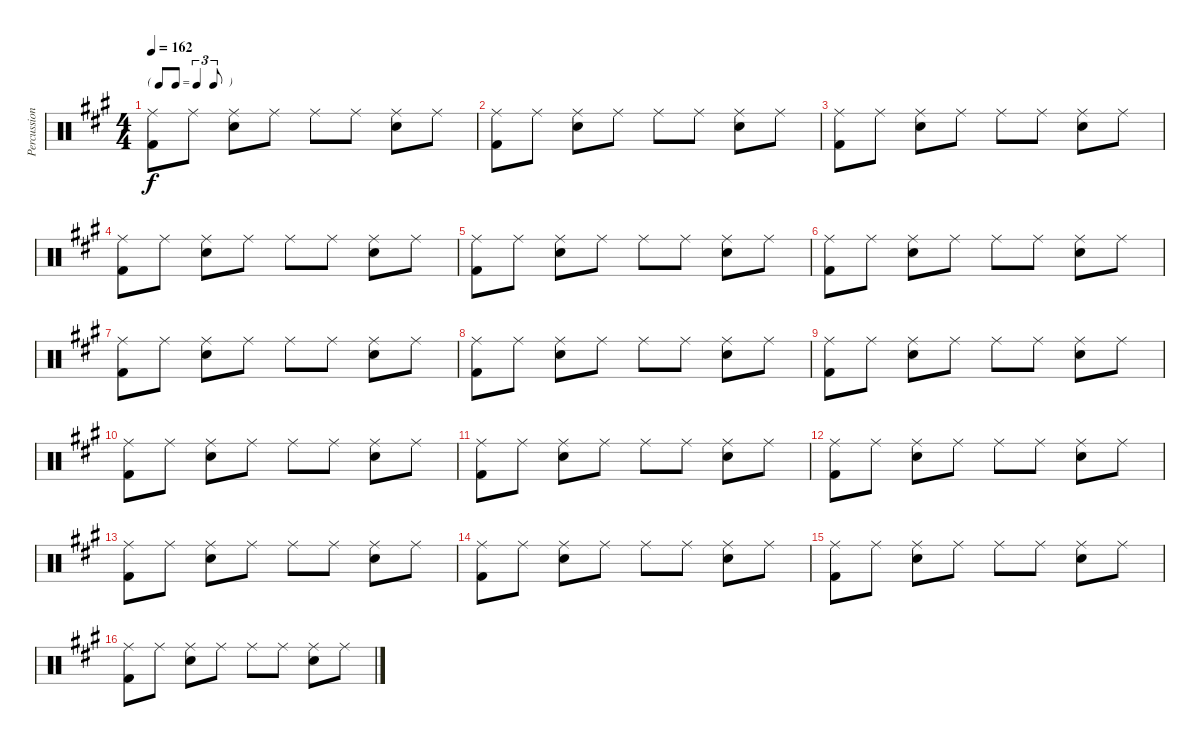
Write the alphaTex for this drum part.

\track ("Percussion" "Percussion") {instrument percussion}
\staff {score}
\articulation defaults
\ts (4 4)
\tf triplet8th
\tempo 162
\clef neutral
\ks a
("Ride (middle)" "Kick (hit) 2").8{dy f} "Ride (middle)".8 ("Ride (middle)" "Snare (hit) 2").8 "Ride (middle)".8 "Ride (middle)".8 "Ride (middle)".8 ("Ride (middle)" "Snare (hit) 2").8 "Ride (middle)".8 |
("Ride (middle)" "Kick (hit) 2").8 "Ride (middle)".8 ("Ride (middle)" "Snare (hit) 2").8 "Ride (middle)".8 "Ride (middle)".8 "Ride (middle)".8 ("Ride (middle)" "Snare (hit) 2").8 "Ride (middle)".8 |
("Ride (middle)" "Kick (hit) 2").8 "Ride (middle)".8 ("Ride (middle)" "Snare (hit) 2").8 "Ride (middle)".8 "Ride (middle)".8 "Ride (middle)".8 ("Ride (middle)" "Snare (hit) 2").8 "Ride (middle)".8 |
("Ride (middle)" "Kick (hit) 2").8 "Ride (middle)".8 ("Ride (middle)" "Snare (hit) 2").8 "Ride (middle)".8 "Ride (middle)".8 "Ride (middle)".8 ("Ride (middle)" "Snare (hit) 2").8 "Ride (middle)".8 |
("Ride (middle)" "Kick (hit) 2").8 "Ride (middle)".8 ("Ride (middle)" "Snare (hit) 2").8 "Ride (middle)".8 "Ride (middle)".8 "Ride (middle)".8 ("Ride (middle)" "Snare (hit) 2").8 "Ride (middle)".8 |
("Ride (middle)" "Kick (hit) 2").8 "Ride (middle)".8 ("Ride (middle)" "Snare (hit) 2").8 "Ride (middle)".8 "Ride (middle)".8 "Ride (middle)".8 ("Ride (middle)" "Snare (hit) 2").8 "Ride (middle)".8 |
("Ride (middle)" "Kick (hit) 2").8 "Ride (middle)".8 ("Ride (middle)" "Snare (hit) 2").8 "Ride (middle)".8 "Ride (middle)".8 "Ride (middle)".8 ("Ride (middle)" "Snare (hit) 2").8 "Ride (middle)".8 |
("Ride (middle)" "Kick (hit) 2").8 "Ride (middle)".8 ("Ride (middle)" "Snare (hit) 2").8 "Ride (middle)".8 "Ride (middle)".8 "Ride (middle)".8 ("Ride (middle)" "Snare (hit) 2").8 "Ride (middle)".8 |
("Ride (middle)" "Kick (hit) 2").8 "Ride (middle)".8 ("Ride (middle)" "Snare (hit) 2").8 "Ride (middle)".8 "Ride (middle)".8 "Ride (middle)".8 ("Ride (middle)" "Snare (hit) 2").8 "Ride (middle)".8 |
("Ride (middle)" "Kick (hit) 2").8 "Ride (middle)".8 ("Ride (middle)" "Snare (hit) 2").8 "Ride (middle)".8 "Ride (middle)".8 "Ride (middle)".8 ("Ride (middle)" "Snare (hit) 2").8 "Ride (middle)".8 |
("Ride (middle)" "Kick (hit) 2").8 "Ride (middle)".8 ("Ride (middle)" "Snare (hit) 2").8 "Ride (middle)".8 "Ride (middle)".8 "Ride (middle)".8 ("Ride (middle)" "Snare (hit) 2").8 "Ride (middle)".8 |
("Ride (middle)" "Kick (hit) 2").8 "Ride (middle)".8 ("Ride (middle)" "Snare (hit) 2").8 "Ride (middle)".8 "Ride (middle)".8 "Ride (middle)".8 ("Ride (middle)" "Snare (hit) 2").8 "Ride (middle)".8 |
("Ride (middle)" "Kick (hit) 2").8 "Ride (middle)".8 ("Ride (middle)" "Snare (hit) 2").8 "Ride (middle)".8 "Ride (middle)".8 "Ride (middle)".8 ("Ride (middle)" "Snare (hit) 2").8 "Ride (middle)".8 |
("Ride (middle)" "Kick (hit) 2").8 "Ride (middle)".8 ("Ride (middle)" "Snare (hit) 2").8 "Ride (middle)".8 "Ride (middle)".8 "Ride (middle)".8 ("Ride (middle)" "Snare (hit) 2").8 "Ride (middle)".8 |
("Ride (middle)" "Kick (hit) 2").8 "Ride (middle)".8 ("Ride (middle)" "Snare (hit) 2").8 "Ride (middle)".8 "Ride (middle)".8 "Ride (middle)".8 ("Ride (middle)" "Snare (hit) 2").8 "Ride (middle)".8 |
("Ride (middle)" "Kick (hit) 2").8 "Ride (middle)".8 ("Ride (middle)" "Snare (hit) 2").8 "Ride (middle)".8 "Ride (middle)".8 "Ride (middle)".8 ("Ride (middle)" "Snare (hit) 2").8 "Ride (middle)".8
